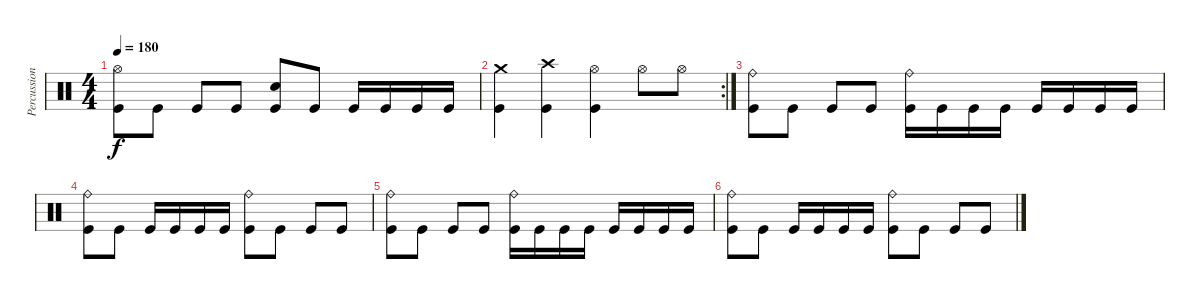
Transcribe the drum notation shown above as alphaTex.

\track ("Percussions" "Percussion") {instrument percussion}
\staff {score}
\articulation defaults
\ts (4 4)
\tempo 180
\clef neutral
\ks c
("Hi-Hat (open)" "Kick (hit)").8{dy f} "Kick (hit)".8 "Kick (hit)".8 "Kick (hit)".8 ("Snare (hit) 2" "Kick (hit)").8 "Kick (hit)".8 "Kick (hit)".16 "Kick (hit)".16 "Kick (hit)".16 "Kick (hit)".16 |
\rc 2
("Crash medium (hit)" "Kick (hit)").4 ("Crash high (hit)" "Kick (hit)").4 ("Hi-Hat (open)" "Kick (hit)").4 "Hi-Hat (open)".8 "Hi-Hat (open)".8 |
("Ride (bell)" "Kick (hit)").8 "Kick (hit)".8 "Kick (hit)".8 "Kick (hit)".8 ("Ride (bell)" "Kick (hit)").16 "Kick (hit)".16 "Kick (hit)".16 "Kick (hit)".16 "Kick (hit)".16 "Kick (hit)".16 "Kick (hit)".16 "Kick (hit)".16 |
("Ride (bell)" "Kick (hit)").8 "Kick (hit)".8 "Kick (hit)".16 "Kick (hit)".16 "Kick (hit)".16 "Kick (hit)".16 ("Ride (bell)" "Kick (hit)").8 "Kick (hit)".8 "Kick (hit)".8 "Kick (hit)".8 |
("Ride (bell)" "Kick (hit)").8 "Kick (hit)".8 "Kick (hit)".8 "Kick (hit)".8 ("Ride (bell)" "Kick (hit)").16 "Kick (hit)".16 "Kick (hit)".16 "Kick (hit)".16 "Kick (hit)".16 "Kick (hit)".16 "Kick (hit)".16 "Kick (hit)".16 |
("Ride (bell)" "Kick (hit)").8 "Kick (hit)".8 "Kick (hit)".16 "Kick (hit)".16 "Kick (hit)".16 "Kick (hit)".16 ("Ride (bell)" "Kick (hit)").8 "Kick (hit)".8 "Kick (hit)".8 "Kick (hit)".8
